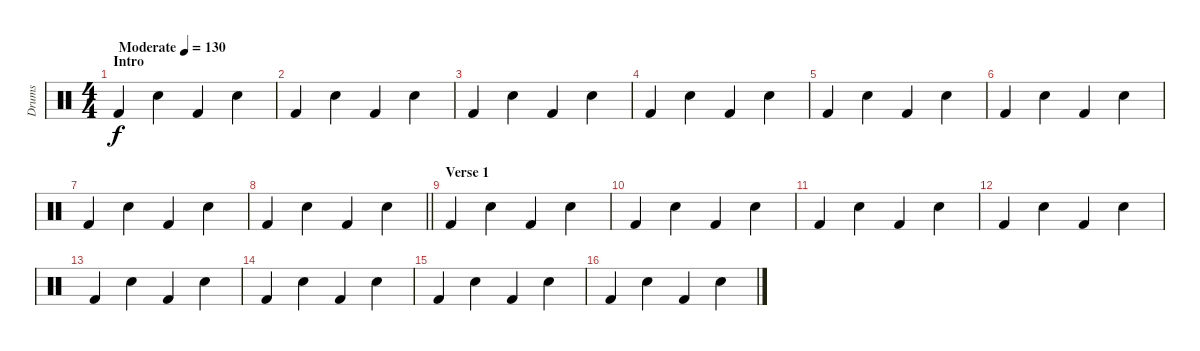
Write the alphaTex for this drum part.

\track ("Drums" "Drums") {instrument percussion}
\staff {score}
\articulation defaults
\ts (4 4)
\section ("" "Intro")
\tempo (130 "Moderate")
\clef neutral
\ks c "Kick (hit) 2".4{dy f} "Snare (hit) 2".4 "Kick (hit) 2".4 "Snare (hit) 2".4
|
"Kick (hit) 2".4 "Snare (hit) 2".4 "Kick (hit) 2".4 "Snare (hit) 2".4 |
"Kick (hit) 2".4 "Snare (hit) 2".4 "Kick (hit) 2".4 "Snare (hit) 2".4 |
"Kick (hit) 2".4 "Snare (hit) 2".4 "Kick (hit) 2".4 "Snare (hit) 2".4 |
"Kick (hit) 2".4 "Snare (hit) 2".4 "Kick (hit) 2".4 "Snare (hit) 2".4 |
"Kick (hit) 2".4 "Snare (hit) 2".4 "Kick (hit) 2".4 "Snare (hit) 2".4 |
"Kick (hit) 2".4 "Snare (hit) 2".4 "Kick (hit) 2".4 "Snare (hit) 2".4 |
\barLineRight lightlight "Kick (hit) 2".4 "Snare (hit) 2".4 "Kick (hit) 2".4 "Snare (hit) 2".4
|
\section ("" "Verse 1")
"Kick (hit) 2".4 "Snare (hit) 2".4 "Kick (hit) 2".4 "Snare (hit) 2".4 |
"Kick (hit) 2".4 "Snare (hit) 2".4 "Kick (hit) 2".4 "Snare (hit) 2".4 |
"Kick (hit) 2".4 "Snare (hit) 2".4 "Kick (hit) 2".4 "Snare (hit) 2".4 |
"Kick (hit) 2".4 "Snare (hit) 2".4 "Kick (hit) 2".4 "Snare (hit) 2".4 |
"Kick (hit) 2".4 "Snare (hit) 2".4 "Kick (hit) 2".4 "Snare (hit) 2".4 |
"Kick (hit) 2".4 "Snare (hit) 2".4 "Kick (hit) 2".4 "Snare (hit) 2".4 |
"Kick (hit) 2".4 "Snare (hit) 2".4 "Kick (hit) 2".4 "Snare (hit) 2".4 |
"Kick (hit) 2".4 "Snare (hit) 2".4 "Kick (hit) 2".4 "Snare (hit) 2".4
